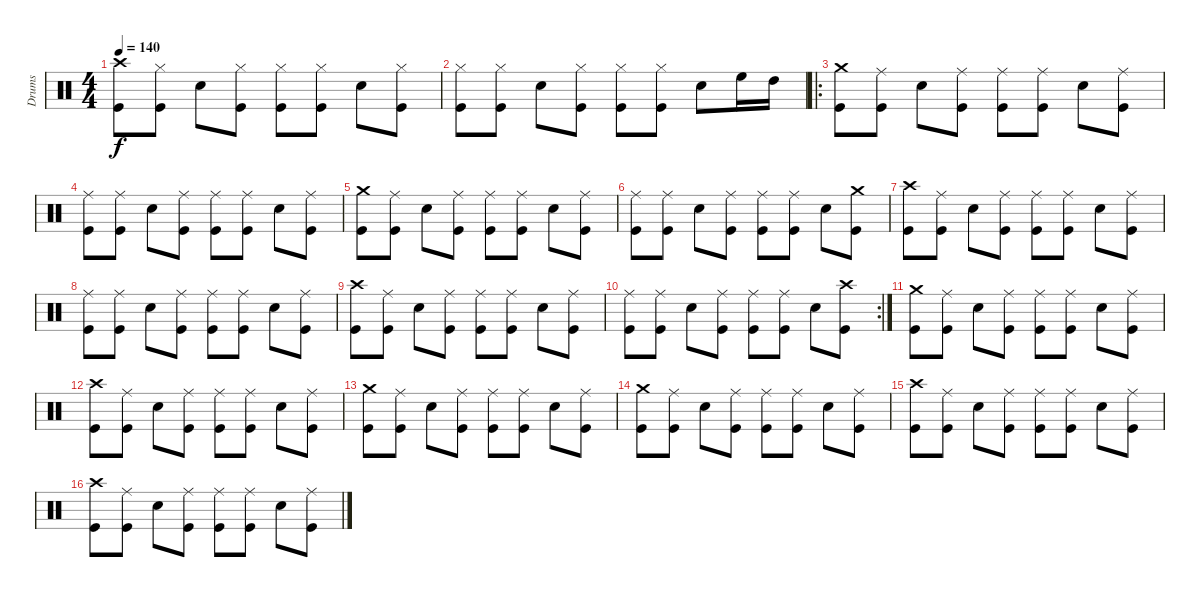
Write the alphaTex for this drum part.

\track ("Drums" "Drums") {instrument percussion}
\staff {score}
\articulation defaults
\ts (4 4)
\tempo 140
\clef neutral
\ks c
("Crash high (hit)" "Kick (hit)").8{dy f} ("Hi-Hat (closed)" "Kick (hit)").8 "Electric Snare (hit)".8 ("Hi-Hat (closed)" "Kick (hit)").8 ("Hi-Hat (closed)" "Kick (hit)").8 ("Hi-Hat (closed)" "Kick (hit)").8 "Electric Snare (hit)".8 ("Hi-Hat (closed)" "Kick (hit)").8 |
("Hi-Hat (closed)" "Kick (hit)").8 ("Hi-Hat (closed)" "Kick (hit)").8 "Electric Snare (hit)".8 ("Hi-Hat (closed)" "Kick (hit)").8 ("Hi-Hat (closed)" "Kick (hit)").8 ("Hi-Hat (closed)" "Kick (hit)").8 "Electric Snare (hit)".8 "High Floor Tom (hit)".16 "High Tom (hit)".16 |
\ro
("Crash medium (hit)" "Kick (hit)").8 ("Ride (middle)" "Kick (hit)").8 "Electric Snare (hit)".8 ("Ride (middle)" "Kick (hit)").8 ("Ride (middle)" "Kick (hit)").8 ("Ride (middle)" "Kick (hit)").8 "Electric Snare (hit)".8 ("Ride (middle)" "Kick (hit)").8 |
("Ride (middle)" "Kick (hit)").8 ("Ride (middle)" "Kick (hit)").8 "Electric Snare (hit)".8 ("Ride (middle)" "Kick (hit)").8 ("Ride (middle)" "Kick (hit)").8 ("Ride (middle)" "Kick (hit)").8 "Electric Snare (hit)".8 ("Ride (middle)" "Kick (hit)").8 |
("Crash medium (hit)" "Kick (hit)").8 ("Ride (middle)" "Kick (hit)").8 "Electric Snare (hit)".8 ("Ride (middle)" "Kick (hit)").8 ("Ride (middle)" "Kick (hit)").8 ("Ride (middle)" "Kick (hit)").8 "Electric Snare (hit)".8 ("Ride (middle)" "Kick (hit)").8 |
("Ride (middle)" "Kick (hit)").8 ("Ride (middle)" "Kick (hit)").8 "Electric Snare (hit)".8 ("Ride (middle)" "Kick (hit)").8 ("Ride (middle)" "Kick (hit)").8 ("Ride (middle)" "Kick (hit)").8 "Electric Snare (hit)".8 ("Crash medium (hit)" "Kick (hit)").8 |
("Crash high (hit)" "Kick (hit)").8 ("Ride (middle)" "Kick (hit)").8 "Electric Snare (hit)".8 ("Ride (middle)" "Kick (hit)").8 ("Ride (middle)" "Kick (hit)").8 ("Ride (middle)" "Kick (hit)").8 "Electric Snare (hit)".8 ("Ride (middle)" "Kick (hit)").8 |
("Ride (middle)" "Kick (hit)").8 ("Ride (middle)" "Kick (hit)").8 "Electric Snare (hit)".8 ("Ride (middle)" "Kick (hit)").8 ("Ride (middle)" "Kick (hit)").8 ("Ride (middle)" "Kick (hit)").8 "Electric Snare (hit)".8 ("Ride (middle)" "Kick (hit)").8 |
("Crash high (hit)" "Kick (hit)").8 ("Ride (middle)" "Kick (hit)").8 "Electric Snare (hit)".8 ("Ride (middle)" "Kick (hit)").8 ("Ride (middle)" "Kick (hit)").8 ("Ride (middle)" "Kick (hit)").8 "Electric Snare (hit)".8 ("Ride (middle)" "Kick (hit)").8 |
\rc 2
("Ride (middle)" "Kick (hit)").8 ("Ride (middle)" "Kick (hit)").8 "Electric Snare (hit)".8 ("Ride (middle)" "Kick (hit)").8 ("Ride (middle)" "Kick (hit)").8 ("Ride (middle)" "Kick (hit)").8 "Electric Snare (hit)".8 ("Crash high (hit)" "Kick (hit)").8 |
("Crash medium (hit)" "Kick (hit)").8 ("Ride (middle)" "Kick (hit)").8 "Electric Snare (hit)".8 ("Ride (middle)" "Kick (hit)").8 ("Ride (middle)" "Kick (hit)").8 ("Ride (middle)" "Kick (hit)").8 "Electric Snare (hit)".8 ("Ride (middle)" "Kick (hit)").8 |
("Crash high (hit)" "Kick (hit)").8 ("Ride (middle)" "Kick (hit)").8 "Electric Snare (hit)".8 ("Ride (middle)" "Kick (hit)").8 ("Ride (middle)" "Kick (hit)").8 ("Ride (middle)" "Kick (hit)").8 "Electric Snare (hit)".8 ("Ride (middle)" "Kick (hit)").8 |
("Crash medium (hit)" "Kick (hit)").8 ("Ride (middle)" "Kick (hit)").8 "Electric Snare (hit)".8 ("Ride (middle)" "Kick (hit)").8 ("Ride (middle)" "Kick (hit)").8 ("Ride (middle)" "Kick (hit)").8 "Electric Snare (hit)".8 ("Ride (middle)" "Kick (hit)").8 |
("Crash medium (hit)" "Kick (hit)").8 ("Ride (middle)" "Kick (hit)").8 "Electric Snare (hit)".8 ("Ride (middle)" "Kick (hit)").8 ("Ride (middle)" "Kick (hit)").8 ("Ride (middle)" "Kick (hit)").8 "Electric Snare (hit)".8 ("Ride (middle)" "Kick (hit)").8 |
("Crash high (hit)" "Kick (hit)").8 ("Ride (middle)" "Kick (hit)").8 "Electric Snare (hit)".8 ("Ride (middle)" "Kick (hit)").8 ("Ride (middle)" "Kick (hit)").8 ("Ride (middle)" "Kick (hit)").8 "Electric Snare (hit)".8 ("Ride (middle)" "Kick (hit)").8 |
("Crash high (hit)" "Kick (hit)").8 ("Ride (middle)" "Kick (hit)").8 "Electric Snare (hit)".8 ("Ride (middle)" "Kick (hit)").8 ("Ride (middle)" "Kick (hit)").8 ("Ride (middle)" "Kick (hit)").8 "Electric Snare (hit)".8 ("Ride (middle)" "Kick (hit)").8
